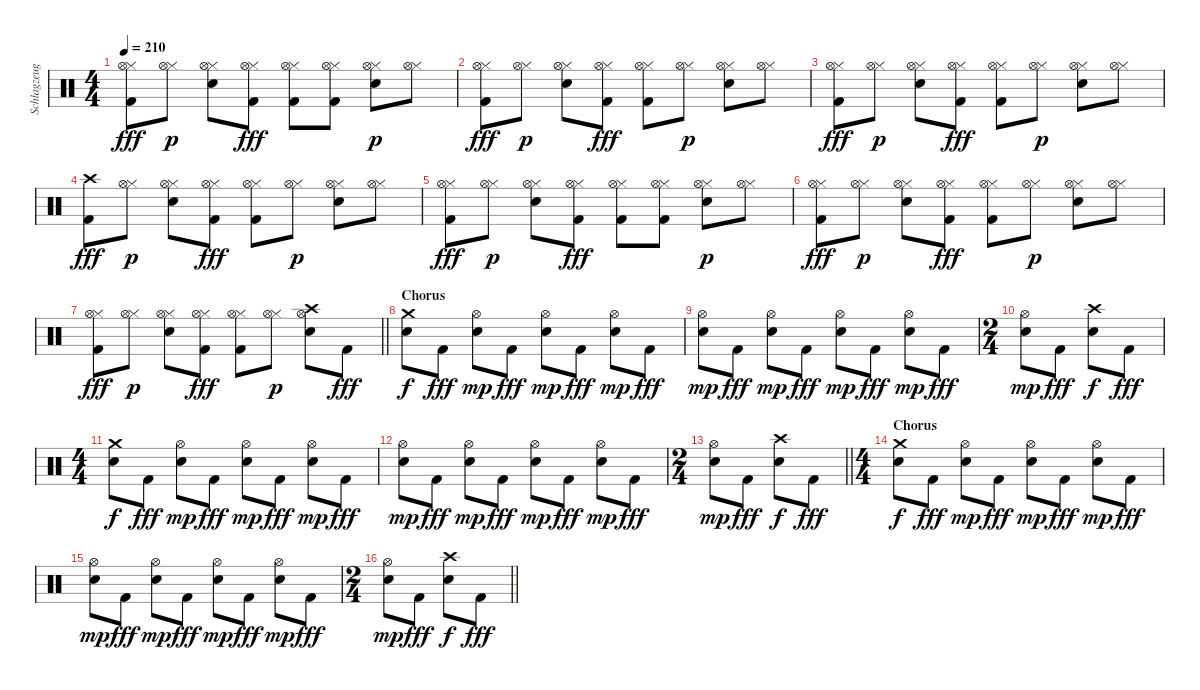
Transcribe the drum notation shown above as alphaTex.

\track ("Schlagzeug" "Schlagzeug") {instrument percussion}
\staff {score}
\articulation defaults
\ts (4 4)
\tempo 210
\clef neutral
\ks c
("Hi-Hat (closed)" "Hi-Hat (open)" "Kick (hit) 2").8{dy fff} ("Hi-Hat (closed)" "Hi-Hat (open)").8{dy p} ("Hi-Hat (closed)" "Hi-Hat (open)" "Snare (hit) 2").8 ("Hi-Hat (closed)" "Hi-Hat (open)" "Kick (hit) 2").8{dy fff} ("Hi-Hat (closed)" "Hi-Hat (open)" "Kick (hit) 2").8 ("Hi-Hat (closed)" "Hi-Hat (open)" "Kick (hit) 2").8 ("Hi-Hat (closed)" "Hi-Hat (open)" "Snare (hit) 2").8{dy p} ("Hi-Hat (closed)" "Hi-Hat (open)").8 |
("Hi-Hat (closed)" "Hi-Hat (open)" "Kick (hit) 2").8{dy fff} ("Hi-Hat (closed)" "Hi-Hat (open)").8{dy p} ("Hi-Hat (closed)" "Hi-Hat (open)" "Snare (hit) 2").8 ("Hi-Hat (closed)" "Hi-Hat (open)" "Kick (hit) 2").8{dy fff} ("Hi-Hat (closed)" "Hi-Hat (open)" "Kick (hit) 2").8 ("Hi-Hat (closed)" "Hi-Hat (open)").8{dy p} ("Hi-Hat (closed)" "Hi-Hat (open)" "Snare (hit) 2").8 ("Hi-Hat (closed)" "Hi-Hat (open)").8 |
("Hi-Hat (closed)" "Hi-Hat (open)" "Kick (hit) 2").8{dy fff} ("Hi-Hat (closed)" "Hi-Hat (open)").8{dy p} ("Hi-Hat (closed)" "Hi-Hat (open)" "Snare (hit) 2").8 ("Hi-Hat (closed)" "Hi-Hat (open)" "Kick (hit) 2").8{dy fff} ("Hi-Hat (closed)" "Hi-Hat (open)" "Kick (hit) 2").8 ("Hi-Hat (closed)" "Hi-Hat (open)").8{dy p} ("Hi-Hat (closed)" "Hi-Hat (open)" "Snare (hit) 2").8 ("Hi-Hat (closed)" "Hi-Hat (open)").8 |
("Crash high (hit)" "Kick (hit) 2").8{dy fff} ("Hi-Hat (closed)" "Hi-Hat (open)").8{dy p} ("Hi-Hat (closed)" "Hi-Hat (open)" "Snare (hit) 2").8 ("Hi-Hat (closed)" "Hi-Hat (open)" "Kick (hit) 2").8{dy fff} ("Hi-Hat (closed)" "Hi-Hat (open)" "Kick (hit) 2").8 ("Hi-Hat (closed)" "Hi-Hat (open)").8{dy p} ("Hi-Hat (closed)" "Hi-Hat (open)" "Snare (hit) 2").8 ("Hi-Hat (closed)" "Hi-Hat (open)").8 |
("Hi-Hat (closed)" "Hi-Hat (open)" "Kick (hit) 2").8{dy fff} ("Hi-Hat (closed)" "Hi-Hat (open)").8{dy p} ("Hi-Hat (closed)" "Hi-Hat (open)" "Snare (hit) 2").8 ("Hi-Hat (closed)" "Hi-Hat (open)" "Kick (hit) 2").8{dy fff} ("Hi-Hat (closed)" "Hi-Hat (open)" "Kick (hit) 2").8 ("Hi-Hat (closed)" "Hi-Hat (open)" "Kick (hit) 2").8 ("Hi-Hat (closed)" "Hi-Hat (open)" "Snare (hit) 2").8{dy p} ("Hi-Hat (closed)" "Hi-Hat (open)").8 |
("Hi-Hat (closed)" "Hi-Hat (open)" "Kick (hit) 2").8{dy fff} ("Hi-Hat (closed)" "Hi-Hat (open)").8{dy p} ("Hi-Hat (closed)" "Hi-Hat (open)" "Snare (hit) 2").8 ("Hi-Hat (closed)" "Hi-Hat (open)" "Kick (hit) 2").8{dy fff} ("Hi-Hat (closed)" "Hi-Hat (open)" "Kick (hit) 2").8 ("Hi-Hat (closed)" "Hi-Hat (open)").8{dy p} ("Hi-Hat (closed)" "Hi-Hat (open)" "Snare (hit) 2").8 ("Hi-Hat (closed)" "Hi-Hat (open)").8 |
\barLineRight lightlight
("Hi-Hat (closed)" "Hi-Hat (open)" "Kick (hit) 2").8{dy fff} ("Hi-Hat (closed)" "Hi-Hat (open)").8{dy p} ("Hi-Hat (closed)" "Hi-Hat (open)" "Snare (hit) 2").8 ("Hi-Hat (closed)" "Hi-Hat (open)" "Kick (hit) 2").8{dy fff} ("Hi-Hat (closed)" "Hi-Hat (open)" "Kick (hit) 2").8 ("Hi-Hat (closed)" "Hi-Hat (open)").8{dy p} ("Crash high (hit)" "Hi-Hat (open)" "Snare (hit) 2").8 "Kick (hit) 2".8{dy fff} |
\section ("" "Chorus")
("Crash medium (hit)" "Snare (hit) 2").8{dy f} "Kick (hit) 2".8{dy fff} ("Hi-Hat (open)" "Snare (hit) 2").8{dy mp} "Kick (hit) 2".8{dy fff} ("Hi-Hat (open)" "Snare (hit) 2").8{dy mp} "Kick (hit) 2".8{dy fff} ("Hi-Hat (open)" "Snare (hit) 2").8{dy mp} "Kick (hit) 2".8{dy fff} |
("Hi-Hat (open)" "Snare (hit) 2").8{dy mp} "Kick (hit) 2".8{dy fff} ("Hi-Hat (open)" "Snare (hit) 2").8{dy mp} "Kick (hit) 2".8{dy fff} ("Hi-Hat (open)" "Snare (hit) 2").8{dy mp} "Kick (hit) 2".8{dy fff} ("Hi-Hat (open)" "Snare (hit) 2").8{dy mp} "Kick (hit) 2".8{dy fff} |
\ts (2 4)
("Hi-Hat (open)" "Snare (hit) 2").8{dy mp} "Kick (hit) 2".8{dy fff} ("Crash high (hit)" "Snare (hit) 2").8{dy f} "Kick (hit) 2".8{dy fff} |
\ts (4 4)
("Crash medium (hit)" "Snare (hit) 2").8{dy f} "Kick (hit) 2".8{dy fff} ("Hi-Hat (open)" "Snare (hit) 2").8{dy mp} "Kick (hit) 2".8{dy fff} ("Hi-Hat (open)" "Snare (hit) 2").8{dy mp} "Kick (hit) 2".8{dy fff} ("Hi-Hat (open)" "Snare (hit) 2").8{dy mp} "Kick (hit) 2".8{dy fff} |
("Hi-Hat (open)" "Snare (hit) 2").8{dy mp} "Kick (hit) 2".8{dy fff} ("Hi-Hat (open)" "Snare (hit) 2").8{dy mp} "Kick (hit) 2".8{dy fff} ("Hi-Hat (open)" "Snare (hit) 2").8{dy mp} "Kick (hit) 2".8{dy fff} ("Hi-Hat (open)" "Snare (hit) 2").8{dy mp} "Kick (hit) 2".8{dy fff} |
\ts (2 4)
\barLineRight lightlight
("Hi-Hat (open)" "Snare (hit) 2").8{dy mp} "Kick (hit) 2".8{dy fff} ("Crash high (hit)" "Snare (hit) 2").8{dy f} "Kick (hit) 2".8{dy fff} |
\ts (4 4)
\section ("" "Chorus")
("Crash medium (hit)" "Snare (hit) 2").8{dy f} "Kick (hit) 2".8{dy fff} ("Hi-Hat (open)" "Snare (hit) 2").8{dy mp} "Kick (hit) 2".8{dy fff} ("Hi-Hat (open)" "Snare (hit) 2").8{dy mp} "Kick (hit) 2".8{dy fff} ("Hi-Hat (open)" "Snare (hit) 2").8{dy mp} "Kick (hit) 2".8{dy fff} |
("Hi-Hat (open)" "Snare (hit) 2").8{dy mp} "Kick (hit) 2".8{dy fff} ("Hi-Hat (open)" "Snare (hit) 2").8{dy mp} "Kick (hit) 2".8{dy fff} ("Hi-Hat (open)" "Snare (hit) 2").8{dy mp} "Kick (hit) 2".8{dy fff} ("Hi-Hat (open)" "Snare (hit) 2").8{dy mp} "Kick (hit) 2".8{dy fff} |
\ts (2 4)
\barLineRight lightlight
("Hi-Hat (open)" "Snare (hit) 2").8{dy mp} "Kick (hit) 2".8{dy fff} ("Crash high (hit)" "Snare (hit) 2").8{dy f} "Kick (hit) 2".8{dy fff}
